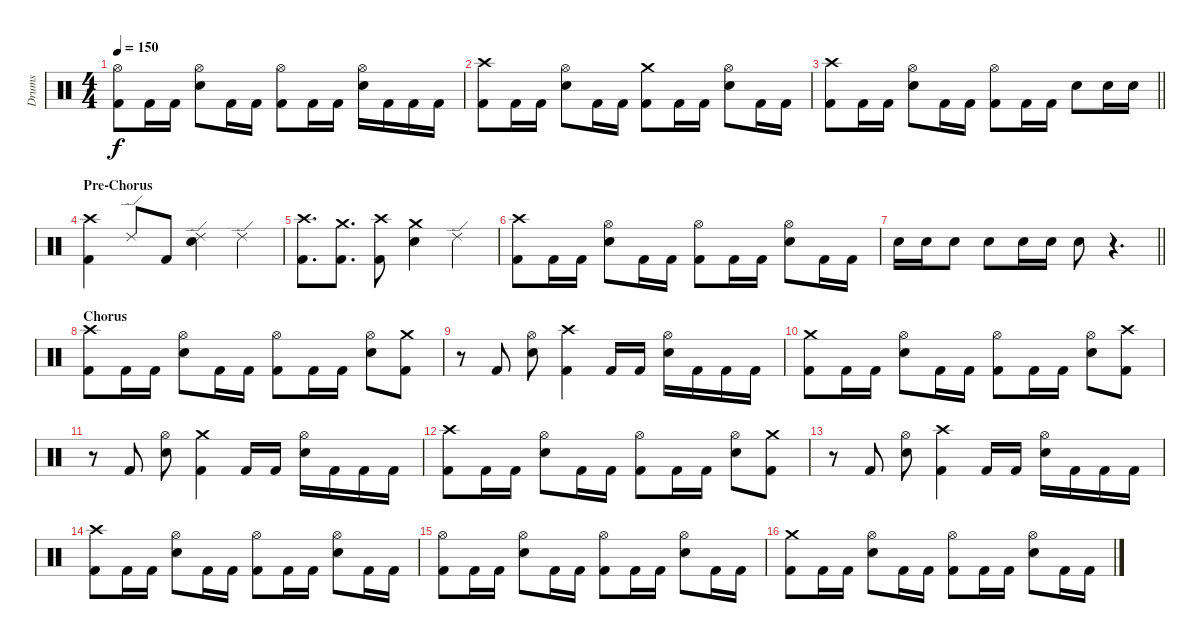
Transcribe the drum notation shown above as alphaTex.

\track ("Drums" "Drums") {instrument percussion}
\staff {score}
\articulation defaults
\ts (4 4)
\tempo 150
\clef neutral
\ks c
("Hi-Hat (open)" "Kick (hit) 2").8{dy f} "Kick (hit) 2".16 "Kick (hit) 2".16 ("Hi-Hat (open)" "Snare (hit) 2").8 "Kick (hit) 2".16 "Kick (hit) 2".16 ("Hi-Hat (open)" "Kick (hit) 2").8 "Kick (hit) 2".16 "Kick (hit) 2".16 ("Hi-Hat (open)" "Snare (hit) 2").16 "Kick (hit) 2".16 "Kick (hit) 2".16 "Kick (hit) 2".16 |
("Crash high (hit)" "Kick (hit) 2").8 "Kick (hit) 2".16 "Kick (hit) 2".16 ("Hi-Hat (open)" "Snare (hit) 2").8 "Kick (hit) 2".16 "Kick (hit) 2".16 ("Crash medium (hit)" "Kick (hit) 2").8 "Kick (hit) 2".16 "Kick (hit) 2".16 ("Hi-Hat (open)" "Snare (hit) 2").8 "Kick (hit) 2".16 "Kick (hit) 2".16 |
\barLineRight lightlight
("Crash high (hit)" "Kick (hit) 2").8 "Kick (hit) 2".16 "Kick (hit) 2".16 ("Hi-Hat (open)" "Snare (hit) 2").8 "Kick (hit) 2".16 "Kick (hit) 2".16 ("Hi-Hat (open)" "Kick (hit) 2").8 "Kick (hit) 2".16 "Kick (hit) 2".16 "Snare (hit) 2".8 "Snare (hit) 2".16 "Snare (hit) 2".16 |
\section ("" "Pre-Chorus")
("Crash high (hit)" "Kick (hit) 2").4 "Ride (edge) 2".8 "Kick (hit) 2".8 ("Ride (edge) 2" "Snare (hit) 2").4 "Ride (edge) 2".4 |
("Crash high (hit)" "Kick (hit) 2").8{d} ("Crash medium (hit)" "Kick (hit) 2").8{d} ("Crash high (hit)" "Kick (hit) 2").8 ("Crash medium (hit)" "Snare (hit) 2").4 "Ride (edge) 2".4 |
("Crash high (hit)" "Kick (hit) 2").8 "Kick (hit) 2".16 "Kick (hit) 2".16 ("Hi-Hat (open)" "Snare (hit) 2").8 "Kick (hit) 2".16 "Kick (hit) 2".16 ("Hi-Hat (open)" "Kick (hit) 2").8 "Kick (hit) 2".16 "Kick (hit) 2".16 ("Hi-Hat (open)" "Snare (hit) 2").8 "Kick (hit) 2".16 "Kick (hit) 2".16 |
\barLineRight lightlight "Snare (hit) 2".16 "Snare (hit) 2".16 "Snare (hit) 2".8 "Snare (hit) 2".8 "Snare (hit) 2".16 "Snare (hit) 2".16 "Snare (hit) 2".8
r.4{d} |
\section ("" "Chorus")
("Crash high (hit)" "Kick (hit) 2").8 "Kick (hit) 2".16 "Kick (hit) 2".16 ("Hi-Hat (open)" "Snare (hit) 2").8 "Kick (hit) 2".16 "Kick (hit) 2".16 ("Hi-Hat (open)" "Kick (hit) 2").8 "Kick (hit) 2".16 "Kick (hit) 2".16 ("Hi-Hat (open)" "Snare (hit) 2").8 ("Crash medium (hit)" "Kick (hit) 2").8 |
r.8 "Kick (hit) 2".8 ("Hi-Hat (open)" "Snare (hit) 2").8 ("Crash high (hit)" "Kick (hit) 2").4 "Kick (hit) 2".16 "Kick (hit) 2".16 ("Hi-Hat (open)" "Snare (hit) 2").16 "Kick (hit) 2".16 "Kick (hit) 2".16 "Kick (hit) 2".16 |
("Crash medium (hit)" "Kick (hit) 2").8 "Kick (hit) 2".16 "Kick (hit) 2".16 ("Hi-Hat (open)" "Snare (hit) 2").8 "Kick (hit) 2".16 "Kick (hit) 2".16 ("Hi-Hat (open)" "Kick (hit) 2").8 "Kick (hit) 2".16 "Kick (hit) 2".16 ("Hi-Hat (open)" "Snare (hit) 2").8 ("Crash high (hit)" "Kick (hit) 2").8 |
r.8 "Kick (hit) 2".8 ("Hi-Hat (open)" "Snare (hit) 2").8 ("Crash medium (hit)" "Kick (hit) 2").4 "Kick (hit) 2".16 "Kick (hit) 2".16 ("Hi-Hat (open)" "Snare (hit) 2").16 "Kick (hit) 2".16 "Kick (hit) 2".16 "Kick (hit) 2".16 |
("Crash high (hit)" "Kick (hit) 2").8 "Kick (hit) 2".16 "Kick (hit) 2".16 ("Hi-Hat (open)" "Snare (hit) 2").8 "Kick (hit) 2".16 "Kick (hit) 2".16 ("Hi-Hat (open)" "Kick (hit) 2").8 "Kick (hit) 2".16 "Kick (hit) 2".16 ("Hi-Hat (open)" "Snare (hit) 2").8 ("Crash medium (hit)" "Kick (hit) 2").8 |
r.8 "Kick (hit) 2".8 ("Hi-Hat (open)" "Snare (hit) 2").8 ("Crash high (hit)" "Kick (hit) 2").4 "Kick (hit) 2".16 "Kick (hit) 2".16 ("Hi-Hat (open)" "Snare (hit) 2").16 "Kick (hit) 2".16 "Kick (hit) 2".16 "Kick (hit) 2".16 |
("Crash high (hit)" "Kick (hit) 2").8 "Kick (hit) 2".16 "Kick (hit) 2".16 ("Hi-Hat (open)" "Snare (hit) 2").8 "Kick (hit) 2".16 "Kick (hit) 2".16 ("Hi-Hat (open)" "Kick (hit) 2").8 "Kick (hit) 2".16 "Kick (hit) 2".16 ("Hi-Hat (open)" "Snare (hit) 2").8 "Kick (hit) 2".16 "Kick (hit) 2".16 |
("Hi-Hat (open)" "Kick (hit) 2").8 "Kick (hit) 2".16 "Kick (hit) 2".16 ("Hi-Hat (open)" "Snare (hit) 2").8 "Kick (hit) 2".16 "Kick (hit) 2".16 ("Hi-Hat (open)" "Kick (hit) 2").8 "Kick (hit) 2".16 "Kick (hit) 2".16 ("Hi-Hat (open)" "Snare (hit) 2").8 "Kick (hit) 2".16 "Kick (hit) 2".16 |
("Crash medium (hit)" "Kick (hit) 2").8 "Kick (hit) 2".16 "Kick (hit) 2".16 ("Hi-Hat (open)" "Snare (hit) 2").8 "Kick (hit) 2".16 "Kick (hit) 2".16 ("Hi-Hat (open)" "Kick (hit) 2").8 "Kick (hit) 2".16 "Kick (hit) 2".16 ("Hi-Hat (open)" "Snare (hit) 2").8 "Kick (hit) 2".16 "Kick (hit) 2".16
